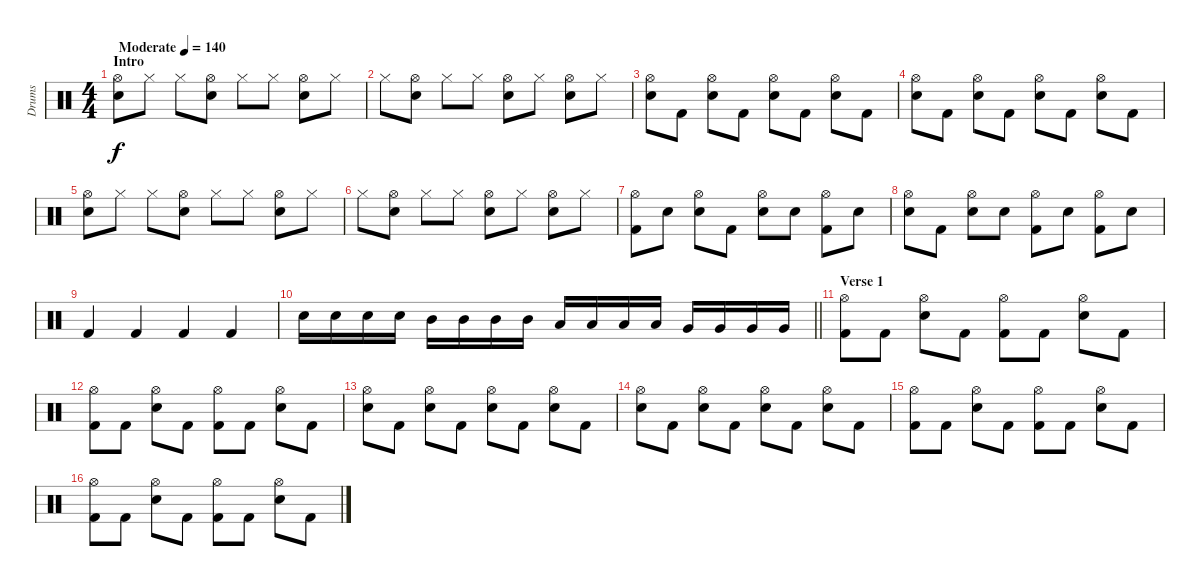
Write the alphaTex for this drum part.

\track ("Drums" "Drums") {instrument percussion}
\staff {score}
\articulation defaults
\ts (4 4)
\section ("" "Intro")
\tempo (140 "Moderate")
\clef neutral
\ks c
("Hi-Hat (open)" "Snare (hit) 2").8{dy f} "Hi-Hat (closed)".8 "Hi-Hat (closed)".8 ("Hi-Hat (open)" "Snare (hit) 2").8 "Hi-Hat (closed)".8 "Hi-Hat (closed)".8 ("Hi-Hat (open)" "Snare (hit) 2").8 "Hi-Hat (closed)".8 |
"Hi-Hat (closed)".8 ("Hi-Hat (open)" "Snare (hit) 2").8 "Hi-Hat (closed)".8 "Hi-Hat (closed)".8 ("Hi-Hat (open)" "Snare (hit) 2").8 "Hi-Hat (closed)".8 ("Hi-Hat (open)" "Snare (hit) 2").8 "Hi-Hat (closed)".8 |
("Snare (hit) 2" "Hi-Hat (open)").8 "Kick (hit) 2".8 ("Snare (hit) 2" "Hi-Hat (open)").8 "Kick (hit) 2".8 ("Snare (hit) 2" "Hi-Hat (open)").8 "Kick (hit) 2".8 ("Snare (hit) 2" "Hi-Hat (open)").8 "Kick (hit) 2".8 |
("Snare (hit) 2" "Hi-Hat (open)").8 "Kick (hit) 2".8 ("Snare (hit) 2" "Hi-Hat (open)").8 "Kick (hit) 2".8 ("Snare (hit) 2" "Hi-Hat (open)").8 "Kick (hit) 2".8 ("Snare (hit) 2" "Hi-Hat (open)").8 "Kick (hit) 2".8 |
("Hi-Hat (open)" "Snare (hit) 2").8 "Hi-Hat (closed)".8 "Hi-Hat (closed)".8 ("Hi-Hat (open)" "Snare (hit) 2").8 "Hi-Hat (closed)".8 "Hi-Hat (closed)".8 ("Hi-Hat (open)" "Snare (hit) 2").8 "Hi-Hat (closed)".8 |
"Hi-Hat (closed)".8 ("Hi-Hat (open)" "Snare (hit) 2").8 "Hi-Hat (closed)".8 "Hi-Hat (closed)".8 ("Hi-Hat (open)" "Snare (hit) 2").8 "Hi-Hat (closed)".8 ("Hi-Hat (open)" "Snare (hit) 2").8 "Hi-Hat (closed)".8 |
("Kick (hit) 2" "Hi-Hat (open)").8 "Snare (hit) 2".8 ("Snare (hit) 2" "Hi-Hat (open)").8 "Kick (hit) 2".8 ("Snare (hit) 2" "Hi-Hat (open)").8 "Snare (hit) 2".8 ("Kick (hit) 2" "Hi-Hat (open)").8 "Snare (hit) 2".8 |
("Snare (hit) 2" "Hi-Hat (open)").8 "Kick (hit) 2".8 ("Snare (hit) 2" "Hi-Hat (open)").8 "Snare (hit) 2".8 ("Kick (hit) 2" "Hi-Hat (open)").8 "Snare (hit) 2".8 ("Kick (hit) 2" "Hi-Hat (open)").8 "Snare (hit) 2".8 |
"Kick (hit) 2".4 "Kick (hit) 2".4 "Kick (hit) 2".4 "Kick (hit) 2".4 |
\barLineRight lightlight "Snare (hit) 2".16 "Snare (hit) 2".16 "Snare (hit) 2".16 "Snare (hit) 2".16 "Mid Tom (hit)".16 "Mid Tom (hit)".16 "Mid Tom (hit)".16 "Mid Tom (hit)".16 "Low Tom (hit)".16 "Low Tom (hit)".16 "Low Tom (hit)".16 "Low Tom (hit)".16 "Very Low Tom (hit)".16 "Very Low Tom (hit)".16 "Very Low Tom (hit)".16 "Very Low Tom (hit)".16
|
\section ("" "Verse 1")
("Kick (hit) 2" "Hi-Hat (open)").8 "Kick (hit) 2".8 ("Snare (hit) 2" "Hi-Hat (open)").8 "Kick (hit) 2".8 ("Kick (hit) 2" "Hi-Hat (open)").8 "Kick (hit) 2".8 ("Snare (hit) 2" "Hi-Hat (open)").8 "Kick (hit) 2".8 |
("Kick (hit) 2" "Hi-Hat (open)").8 "Kick (hit) 2".8 ("Snare (hit) 2" "Hi-Hat (open)").8 "Kick (hit) 2".8 ("Kick (hit) 2" "Hi-Hat (open)").8 "Kick (hit) 2".8 ("Snare (hit) 2" "Hi-Hat (open)").8 "Kick (hit) 2".8 |
("Snare (hit) 2" "Hi-Hat (open)").8 "Kick (hit) 2".8 ("Snare (hit) 2" "Hi-Hat (open)").8 "Kick (hit) 2".8 ("Snare (hit) 2" "Hi-Hat (open)").8 "Kick (hit) 2".8 ("Snare (hit) 2" "Hi-Hat (open)").8 "Kick (hit) 2".8 |
("Snare (hit) 2" "Hi-Hat (open)").8 "Kick (hit) 2".8 ("Snare (hit) 2" "Hi-Hat (open)").8 "Kick (hit) 2".8 ("Snare (hit) 2" "Hi-Hat (open)").8 "Kick (hit) 2".8 ("Snare (hit) 2" "Hi-Hat (open)").8 "Kick (hit) 2".8 |
("Kick (hit) 2" "Hi-Hat (open)").8 "Kick (hit) 2".8 ("Snare (hit) 2" "Hi-Hat (open)").8 "Kick (hit) 2".8 ("Kick (hit) 2" "Hi-Hat (open)").8 "Kick (hit) 2".8 ("Snare (hit) 2" "Hi-Hat (open)").8 "Kick (hit) 2".8 |
("Kick (hit) 2" "Hi-Hat (open)").8 "Kick (hit) 2".8 ("Snare (hit) 2" "Hi-Hat (open)").8 "Kick (hit) 2".8 ("Kick (hit) 2" "Hi-Hat (open)").8 "Kick (hit) 2".8 ("Snare (hit) 2" "Hi-Hat (open)").8 "Kick (hit) 2".8
